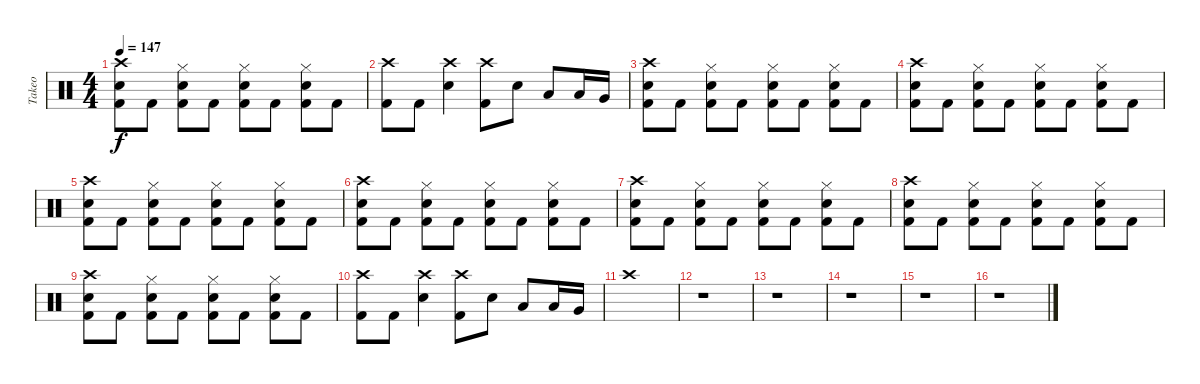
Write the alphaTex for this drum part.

\track ("Takeo" "Takeo") {instrument percussion}
\staff {score}
\articulation defaults
\ts (4 4)
\tempo 147
\clef neutral
\ks c
("Kick (hit) 2" "Snare (hit) 2" "Crash high (hit)").8{dy f} "Kick (hit) 2".8 ("Kick (hit) 2" "Snare (hit) 2" "Hi-Hat (closed)").8 "Kick (hit) 2".8 ("Kick (hit) 2" "Snare (hit) 2" "Hi-Hat (closed)").8 "Kick (hit) 2".8 ("Kick (hit) 2" "Snare (hit) 2" "Hi-Hat (closed)").8 "Kick (hit) 2".8 |
("Kick (hit) 2" "Crash high (hit)").8 "Kick (hit) 2".8 ("Snare (hit) 2" "Crash high (hit)").4 ("Kick (hit) 2" "Crash high (hit)").8 "Snare (hit) 2".8 "Low Tom (hit)".8 "Low Tom (hit)".16 "Very Low Tom (hit)".16 |
("Kick (hit) 2" "Snare (hit) 2" "Crash high (hit)").8 "Kick (hit) 2".8 ("Kick (hit) 2" "Snare (hit) 2" "Hi-Hat (closed)").8 "Kick (hit) 2".8 ("Kick (hit) 2" "Snare (hit) 2" "Hi-Hat (closed)").8 "Kick (hit) 2".8 ("Kick (hit) 2" "Snare (hit) 2" "Hi-Hat (closed)").8 "Kick (hit) 2".8 |
("Kick (hit) 2" "Snare (hit) 2" "Crash high (hit)").8 "Kick (hit) 2".8 ("Kick (hit) 2" "Snare (hit) 2" "Hi-Hat (closed)").8 "Kick (hit) 2".8 ("Kick (hit) 2" "Snare (hit) 2" "Hi-Hat (closed)").8 "Kick (hit) 2".8 ("Kick (hit) 2" "Snare (hit) 2" "Hi-Hat (closed)").8 "Kick (hit) 2".8 |
("Kick (hit) 2" "Snare (hit) 2" "Crash high (hit)").8 "Kick (hit) 2".8 ("Kick (hit) 2" "Snare (hit) 2" "Hi-Hat (closed)").8 "Kick (hit) 2".8 ("Kick (hit) 2" "Snare (hit) 2" "Hi-Hat (closed)").8 "Kick (hit) 2".8 ("Kick (hit) 2" "Snare (hit) 2" "Hi-Hat (closed)").8 "Kick (hit) 2".8 |
("Kick (hit) 2" "Snare (hit) 2" "Crash high (hit)").8 "Kick (hit) 2".8 ("Kick (hit) 2" "Snare (hit) 2" "Hi-Hat (closed)").8 "Kick (hit) 2".8 ("Kick (hit) 2" "Snare (hit) 2" "Hi-Hat (closed)").8 "Kick (hit) 2".8 ("Kick (hit) 2" "Snare (hit) 2" "Hi-Hat (closed)").8 "Kick (hit) 2".8 |
("Kick (hit) 2" "Snare (hit) 2" "Crash high (hit)").8 "Kick (hit) 2".8 ("Kick (hit) 2" "Snare (hit) 2" "Hi-Hat (closed)").8 "Kick (hit) 2".8 ("Kick (hit) 2" "Snare (hit) 2" "Hi-Hat (closed)").8 "Kick (hit) 2".8 ("Kick (hit) 2" "Snare (hit) 2" "Hi-Hat (closed)").8 "Kick (hit) 2".8 |
("Kick (hit) 2" "Snare (hit) 2" "Crash high (hit)").8 "Kick (hit) 2".8 ("Kick (hit) 2" "Snare (hit) 2" "Hi-Hat (closed)").8 "Kick (hit) 2".8 ("Kick (hit) 2" "Snare (hit) 2" "Hi-Hat (closed)").8 "Kick (hit) 2".8 ("Kick (hit) 2" "Snare (hit) 2" "Hi-Hat (closed)").8 "Kick (hit) 2".8 |
("Kick (hit) 2" "Snare (hit) 2" "Crash high (hit)").8 "Kick (hit) 2".8 ("Kick (hit) 2" "Snare (hit) 2" "Hi-Hat (closed)").8 "Kick (hit) 2".8 ("Kick (hit) 2" "Snare (hit) 2" "Hi-Hat (closed)").8 "Kick (hit) 2".8 ("Kick (hit) 2" "Snare (hit) 2" "Hi-Hat (closed)").8 "Kick (hit) 2".8 |
("Kick (hit) 2" "Crash high (hit)").8 "Kick (hit) 2".8 ("Snare (hit) 2" "Crash high (hit)").4 ("Kick (hit) 2" "Crash high (hit)").8 "Snare (hit) 2".8 "Low Tom (hit)".8 "Low Tom (hit)".16 "Very Low Tom (hit)".16 |
"Crash high (hit)".1 |
r.1 |
r.1 |
r.1 |
r.1 |
r.1
